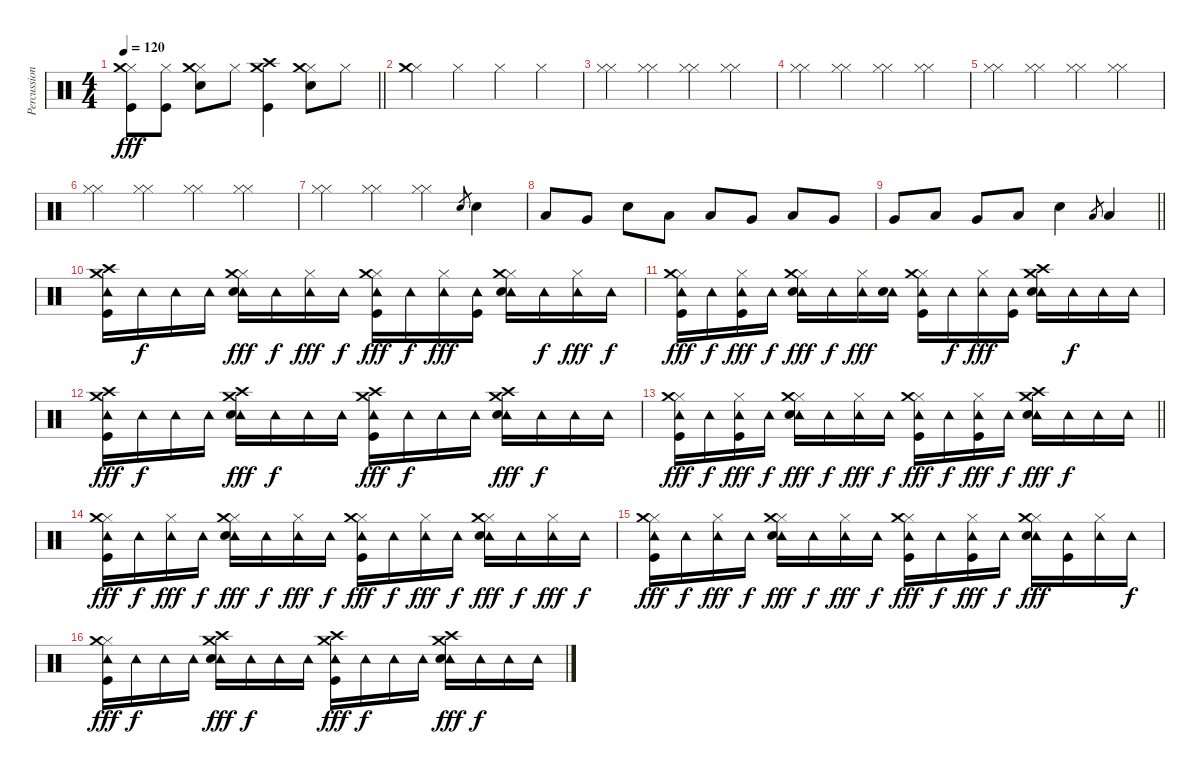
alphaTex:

\track ("Percussioni" "Percussion") {instrument percussion}
\staff {score}
\articulation defaults
\ts (4 4)
\tempo 120
\clef neutral
\barLineRight lightlight
\ks c
("Hi-Hat (closed)" "Crash medium (hit)" "Kick (hit)").8{dy fff} ("Hi-Hat (closed)" "Kick (hit)").8 ("Hi-Hat (closed)" "Crash medium (hit)" "Snare (hit) 2").8 "Hi-Hat (closed)".8 ("Crash high (hit)" "Crash medium (hit)" "Kick (hit)").4 ("Hi-Hat (closed)" "Crash medium (hit)" "Snare (hit) 2").8 "Hi-Hat (closed)".8 |
("Hi-Hat (closed)" "Crash medium (hit)").4 "Hi-Hat (closed)".4 "Hi-Hat (closed)".4 "Hi-Hat (closed)".4 |
("Hi-Hat (closed)" "Hi-Hat (closed)").4 ("Hi-Hat (closed)" "Hi-Hat (closed)").4 ("Hi-Hat (closed)" "Hi-Hat (closed)").4 ("Hi-Hat (closed)" "Hi-Hat (closed)").4 |
("Hi-Hat (closed)" "Hi-Hat (closed)").4 ("Hi-Hat (closed)" "Hi-Hat (closed)").4 ("Hi-Hat (closed)" "Hi-Hat (closed)").4 ("Hi-Hat (closed)" "Hi-Hat (closed)").4 |
("Hi-Hat (closed)" "Hi-Hat (closed)").4 ("Hi-Hat (closed)" "Hi-Hat (closed)").4 ("Hi-Hat (closed)" "Hi-Hat (closed)").4 ("Hi-Hat (closed)" "Hi-Hat (closed)").4 |
("Hi-Hat (closed)" "Hi-Hat (closed)").4 ("Hi-Hat (closed)" "Hi-Hat (closed)").4 ("Hi-Hat (closed)" "Hi-Hat (closed)").4 ("Hi-Hat (closed)" "Hi-Hat (closed)").4 |
("Hi-Hat (closed)" "Hi-Hat (closed)").4 ("Hi-Hat (closed)" "Hi-Hat (closed)").4 ("Hi-Hat (closed)" "Hi-Hat (closed)").4 "Snare (hit) 2".8{gr} "Snare (hit) 2".4 |
"Low Tom (hit)".8 "Very Low Tom (hit)".8 "Snare (hit) 2".8 "Low Tom (hit)".8 "Low Tom (hit)".8 "Very Low Tom (hit)".8 "Low Floor Tom (hit)".8 "Very Low Tom (hit)".8 |
\barLineRight lightlight "Very Low Tom (hit)".8 "Low Floor Tom (hit)".8 "Very Low Tom (hit)".8 "Low Tom (hit)".8 "Snare (hit) 2".4 "Low Tom (hit)".8{gr} "Low Floor Tom (hit)".4
|
("Crash high (hit)" "Tambourine (hit)" "Crash medium (hit)" "Kick (hit)").16 "Tambourine (hit)".16{dy f} "Tambourine (hit)".16 "Tambourine (hit)".16 ("Hi-Hat (closed)" "Tambourine (hit)" "Crash medium (hit)" "Snare (hit) 2").16{dy fff} "Tambourine (hit)".16{dy f} ("Hi-Hat (closed)" "Tambourine (hit)").16{dy fff} "Tambourine (hit)".16{dy f} ("Hi-Hat (closed)" "Tambourine (hit)" "Crash medium (hit)" "Kick (hit)").16{dy fff} "Tambourine (hit)".16{dy f} ("Hi-Hat (closed)" "Tambourine (hit)").16{dy fff} ("Tambourine (hit)" "Kick (hit)").16 ("Hi-Hat (closed)" "Tambourine (hit)" "Crash medium (hit)" "Snare (hit) 2").16 "Tambourine (hit)".16{dy f} ("Hi-Hat (closed)" "Tambourine (hit)").16{dy fff} "Tambourine (hit)".16{dy f} |
("Hi-Hat (closed)" "Tambourine (hit)" "Crash medium (hit)" "Kick (hit)").16{dy fff} "Tambourine (hit)".16{dy f} ("Hi-Hat (closed)" "Tambourine (hit)" "Kick (hit)").16{dy fff} "Tambourine (hit)".16{dy f} ("Hi-Hat (closed)" "Tambourine (hit)" "Crash medium (hit)" "Snare (hit) 2").16{dy fff} "Tambourine (hit)".16{dy f} ("Hi-Hat (closed)" "Tambourine (hit)").16{dy fff} ("Tambourine (hit)" "Snare (hit) 2").16 ("Hi-Hat (closed)" "Tambourine (hit)" "Crash medium (hit)" "Kick (hit)").16 "Tambourine (hit)".16{dy f} ("Hi-Hat (closed)" "Tambourine (hit)").16{dy fff} ("Tambourine (hit)" "Kick (hit)").16 ("Crash high (hit)" "Tambourine (hit)" "Crash medium (hit)" "Snare (hit) 2").16 "Tambourine (hit)".16{dy f} "Tambourine (hit)".16 "Tambourine (hit)".16 |
("Crash high (hit)" "Tambourine (hit)" "Crash medium (hit)" "Kick (hit)").16{dy fff} "Tambourine (hit)".16{dy f} "Tambourine (hit)".16 "Tambourine (hit)".16 ("Crash high (hit)" "Tambourine (hit)" "Crash medium (hit)" "Snare (hit) 2").16{dy fff} "Tambourine (hit)".16{dy f} "Tambourine (hit)".16 "Tambourine (hit)".16 ("Crash high (hit)" "Tambourine (hit)" "Crash medium (hit)" "Kick (hit)").16{dy fff} "Tambourine (hit)".16{dy f} "Tambourine (hit)".16 "Tambourine (hit)".16 ("Crash high (hit)" "Tambourine (hit)" "Crash medium (hit)" "Snare (hit) 2").16{dy fff} "Tambourine (hit)".16{dy f} "Tambourine (hit)".16 "Tambourine (hit)".16 |
\barLineRight lightlight
("Hi-Hat (closed)" "Tambourine (hit)" "Crash medium (hit)" "Kick (hit)").16{dy fff} "Tambourine (hit)".16{dy f} ("Hi-Hat (closed)" "Tambourine (hit)" "Kick (hit)").16{dy fff} "Tambourine (hit)".16{dy f} ("Hi-Hat (closed)" "Tambourine (hit)" "Crash medium (hit)" "Snare (hit) 2").16{dy fff} "Tambourine (hit)".16{dy f} ("Hi-Hat (closed)" "Tambourine (hit)").16{dy fff} "Tambourine (hit)".16{dy f} ("Hi-Hat (closed)" "Tambourine (hit)" "Crash medium (hit)" "Kick (hit)").16{dy fff} "Tambourine (hit)".16{dy f} ("Hi-Hat (closed)" "Tambourine (hit)" "Kick (hit)").16{dy fff} "Tambourine (hit)".16{dy f} ("Crash high (hit)" "Tambourine (hit)" "Crash medium (hit)" "Snare (hit) 2").16{dy fff} "Tambourine (hit)".16{dy f} "Tambourine (hit)".16 "Tambourine (hit)".16 |
("Hi-Hat (closed)" "Tambourine (hit)" "Crash medium (hit)" "Kick (hit)").16{dy fff} "Tambourine (hit)".16{dy f} ("Hi-Hat (closed)" "Tambourine (hit)").16{dy fff} "Tambourine (hit)".16{dy f} ("Hi-Hat (closed)" "Tambourine (hit)" "Crash medium (hit)" "Snare (hit) 2").16{dy fff} "Tambourine (hit)".16{dy f} ("Hi-Hat (closed)" "Tambourine (hit)").16{dy fff} "Tambourine (hit)".16{dy f} ("Hi-Hat (closed)" "Tambourine (hit)" "Crash medium (hit)" "Kick (hit)").16{dy fff} "Tambourine (hit)".16{dy f} ("Hi-Hat (closed)" "Tambourine (hit)").16{dy fff} "Tambourine (hit)".16{dy f} ("Hi-Hat (closed)" "Tambourine (hit)" "Crash medium (hit)" "Snare (hit) 2").16{dy fff} "Tambourine (hit)".16{dy f} ("Hi-Hat (closed)" "Tambourine (hit)").16{dy fff} "Tambourine (hit)".16{dy f} |
("Hi-Hat (closed)" "Tambourine (hit)" "Crash medium (hit)" "Kick (hit)").16{dy fff} "Tambourine (hit)".16{dy f} ("Hi-Hat (closed)" "Tambourine (hit)").16{dy fff} "Tambourine (hit)".16{dy f} ("Hi-Hat (closed)" "Tambourine (hit)" "Crash medium (hit)" "Snare (hit) 2").16{dy fff} "Tambourine (hit)".16{dy f} ("Hi-Hat (closed)" "Tambourine (hit)").16{dy fff} "Tambourine (hit)".16{dy f} ("Hi-Hat (closed)" "Tambourine (hit)" "Crash medium (hit)" "Kick (hit)").16{dy fff} "Tambourine (hit)".16{dy f} ("Hi-Hat (closed)" "Tambourine (hit)" "Kick (hit)").16{dy fff} "Tambourine (hit)".16{dy f} ("Hi-Hat (closed)" "Tambourine (hit)" "Crash medium (hit)" "Snare (hit) 2").16{dy fff} ("Tambourine (hit)" "Kick (hit)").16 ("Hi-Hat (closed)" "Tambourine (hit)").16 "Tambourine (hit)".16{dy f} |
("Hi-Hat (closed)" "Tambourine (hit)" "Crash medium (hit)" "Kick (hit)").16{dy fff} "Tambourine (hit)".16{dy f} "Tambourine (hit)".16 "Tambourine (hit)".16 ("Crash high (hit)" "Tambourine (hit)" "Crash medium (hit)" "Snare (hit) 2").16{dy fff} "Tambourine (hit)".16{dy f} "Tambourine (hit)".16 "Tambourine (hit)".16 ("Crash high (hit)" "Tambourine (hit)" "Crash medium (hit)" "Kick (hit)").16{dy fff} "Tambourine (hit)".16{dy f} "Tambourine (hit)".16 "Tambourine (hit)".16 ("Crash high (hit)" "Tambourine (hit)" "Crash medium (hit)" "Snare (hit) 2").16{dy fff} "Tambourine (hit)".16{dy f} "Tambourine (hit)".16 "Tambourine (hit)".16
